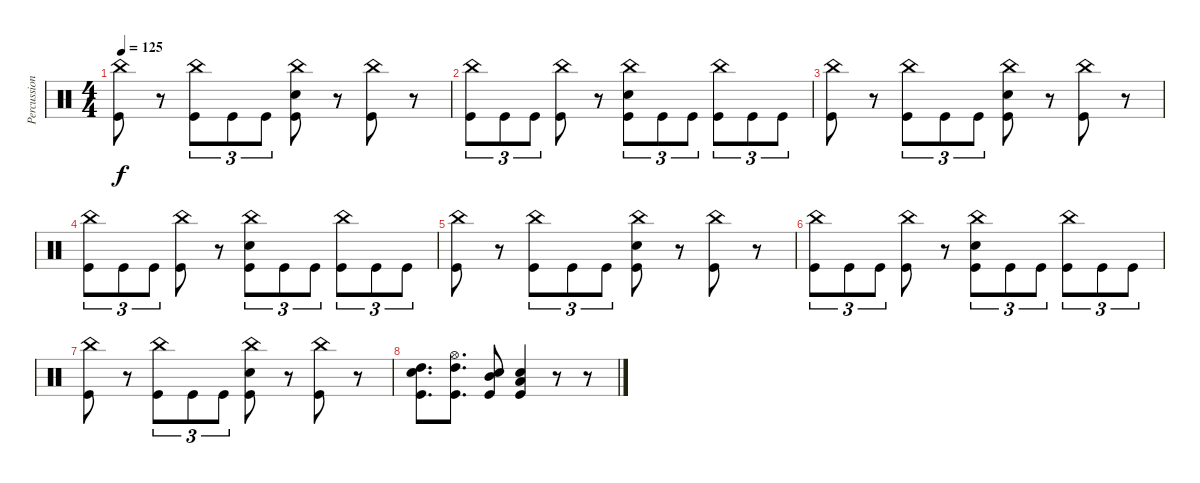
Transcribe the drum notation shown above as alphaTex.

\track ("Percussion" "Percussion") {instrument percussion}
\staff {score}
\articulation defaults
\ts (4 4)
\tempo 125
\clef neutral
\ks c
("China (hit)" "Kick (hit)").8{dy f} r.8 ("China (hit)" "Kick (hit)").8{tu (3 2)} "Kick (hit)".8{tu (3 2)} "Kick (hit)".8{tu (3 2)} ("China (hit)" "Electric Snare (hit)" "Kick (hit)").8 r.8 ("China (hit)" "Kick (hit)").8 r.8 |
("China (hit)" "Kick (hit)").8{tu (3 2)} "Kick (hit)".8{tu (3 2)} "Kick (hit)".8{tu (3 2)} ("China (hit)" "Kick (hit)").8 r.8 ("China (hit)" "Electric Snare (hit)" "Kick (hit)").8{tu (3 2)} "Kick (hit)".8{tu (3 2)} "Kick (hit)".8{tu (3 2)} ("China (hit)" "Kick (hit)").8{tu (3 2)} "Kick (hit)".8{tu (3 2)} "Kick (hit)".8{tu (3 2)} |
("China (hit)" "Kick (hit)").8 r.8 ("China (hit)" "Kick (hit)").8{tu (3 2)} "Kick (hit)".8{tu (3 2)} "Kick (hit)".8{tu (3 2)} ("China (hit)" "Electric Snare (hit)" "Kick (hit)").8 r.8 ("China (hit)" "Kick (hit)").8 r.8 |
("China (hit)" "Kick (hit)").8{tu (3 2)} "Kick (hit)".8{tu (3 2)} "Kick (hit)".8{tu (3 2)} ("China (hit)" "Kick (hit)").8 r.8 ("China (hit)" "Electric Snare (hit)" "Kick (hit)").8{tu (3 2)} "Kick (hit)".8{tu (3 2)} "Kick (hit)".8{tu (3 2)} ("China (hit)" "Kick (hit)").8{tu (3 2)} "Kick (hit)".8{tu (3 2)} "Kick (hit)".8{tu (3 2)} |
("China (hit)" "Kick (hit)").8 r.8 ("China (hit)" "Kick (hit)").8{tu (3 2)} "Kick (hit)".8{tu (3 2)} "Kick (hit)".8{tu (3 2)} ("China (hit)" "Electric Snare (hit)" "Kick (hit)").8 r.8 ("China (hit)" "Kick (hit)").8 r.8 |
("China (hit)" "Kick (hit)").8{tu (3 2)} "Kick (hit)".8{tu (3 2)} "Kick (hit)".8{tu (3 2)} ("China (hit)" "Kick (hit)").8 r.8 ("China (hit)" "Electric Snare (hit)" "Kick (hit)").8{tu (3 2)} "Kick (hit)".8{tu (3 2)} "Kick (hit)".8{tu (3 2)} ("China (hit)" "Kick (hit)").8{tu (3 2)} "Kick (hit)".8{tu (3 2)} "Kick (hit)".8{tu (3 2)} |
("China (hit)" "Kick (hit)").8 r.8 ("China (hit)" "Kick (hit)").8{tu (3 2)} "Kick (hit)".8{tu (3 2)} "Kick (hit)".8{tu (3 2)} ("China (hit)" "Electric Snare (hit)" "Kick (hit)").8 r.8 ("China (hit)" "Kick (hit)").8 r.8 |
("High Tom (hit)" "Electric Snare (hit)" "Kick (hit)").8{d} ("Hi-Hat (open)" "High Tom (hit)" "Kick (hit)").8{d} ("Mid Tom (hit)" "Electric Snare (hit)" "Kick (hit)").8 ("Low Tom (hit)" "Electric Snare (hit)" "Kick (hit)").4 r.8 r.8
